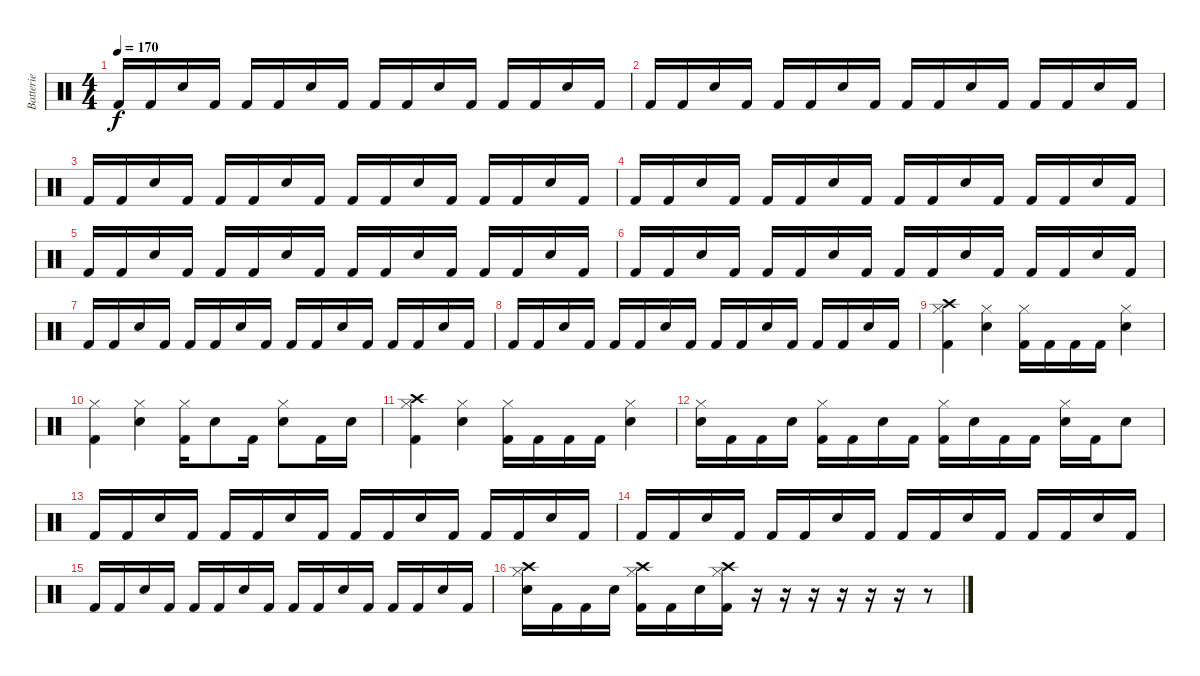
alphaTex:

\track ("Batterie" "Batterie") {instrument percussion}
\staff {score}
\articulation defaults
\ts (4 4)
\tempo 170
\clef neutral
\ks c "Kick (hit) 2".16{dy f} "Kick (hit) 2".16 "Snare (hit) 2".16 "Kick (hit) 2".16 "Kick (hit) 2".16 "Kick (hit) 2".16 "Snare (hit) 2".16 "Kick (hit) 2".16 "Kick (hit) 2".16 "Kick (hit) 2".16 "Snare (hit) 2".16 "Kick (hit) 2".16 "Kick (hit) 2".16 "Kick (hit) 2".16 "Snare (hit) 2".16 "Kick (hit) 2".16
|
"Kick (hit) 2".16 "Kick (hit) 2".16 "Snare (hit) 2".16 "Kick (hit) 2".16 "Kick (hit) 2".16 "Kick (hit) 2".16 "Snare (hit) 2".16 "Kick (hit) 2".16 "Kick (hit) 2".16 "Kick (hit) 2".16 "Snare (hit) 2".16 "Kick (hit) 2".16 "Kick (hit) 2".16 "Kick (hit) 2".16 "Snare (hit) 2".16 "Kick (hit) 2".16 |
"Kick (hit) 2".16 "Kick (hit) 2".16 "Snare (hit) 2".16 "Kick (hit) 2".16 "Kick (hit) 2".16 "Kick (hit) 2".16 "Snare (hit) 2".16 "Kick (hit) 2".16 "Kick (hit) 2".16 "Kick (hit) 2".16 "Snare (hit) 2".16 "Kick (hit) 2".16 "Kick (hit) 2".16 "Kick (hit) 2".16 "Snare (hit) 2".16 "Kick (hit) 2".16 |
"Kick (hit) 2".16 "Kick (hit) 2".16 "Snare (hit) 2".16 "Kick (hit) 2".16 "Kick (hit) 2".16 "Kick (hit) 2".16 "Snare (hit) 2".16 "Kick (hit) 2".16 "Kick (hit) 2".16 "Kick (hit) 2".16 "Snare (hit) 2".16 "Kick (hit) 2".16 "Kick (hit) 2".16 "Kick (hit) 2".16 "Snare (hit) 2".16 "Kick (hit) 2".16 |
"Kick (hit) 2".16 "Kick (hit) 2".16 "Snare (hit) 2".16 "Kick (hit) 2".16 "Kick (hit) 2".16 "Kick (hit) 2".16 "Snare (hit) 2".16 "Kick (hit) 2".16 "Kick (hit) 2".16 "Kick (hit) 2".16 "Snare (hit) 2".16 "Kick (hit) 2".16 "Kick (hit) 2".16 "Kick (hit) 2".16 "Snare (hit) 2".16 "Kick (hit) 2".16 |
"Kick (hit) 2".16 "Kick (hit) 2".16 "Snare (hit) 2".16 "Kick (hit) 2".16 "Kick (hit) 2".16 "Kick (hit) 2".16 "Snare (hit) 2".16 "Kick (hit) 2".16 "Kick (hit) 2".16 "Kick (hit) 2".16 "Snare (hit) 2".16 "Kick (hit) 2".16 "Kick (hit) 2".16 "Kick (hit) 2".16 "Snare (hit) 2".16 "Kick (hit) 2".16 |
"Kick (hit) 2".16 "Kick (hit) 2".16 "Snare (hit) 2".16 "Kick (hit) 2".16 "Kick (hit) 2".16 "Kick (hit) 2".16 "Snare (hit) 2".16 "Kick (hit) 2".16 "Kick (hit) 2".16 "Kick (hit) 2".16 "Snare (hit) 2".16 "Kick (hit) 2".16 "Kick (hit) 2".16 "Kick (hit) 2".16 "Snare (hit) 2".16 "Kick (hit) 2".16 |
"Kick (hit) 2".16 "Kick (hit) 2".16 "Snare (hit) 2".16 "Kick (hit) 2".16 "Kick (hit) 2".16 "Kick (hit) 2".16 "Snare (hit) 2".16 "Kick (hit) 2".16 "Kick (hit) 2".16 "Kick (hit) 2".16 "Snare (hit) 2".16 "Kick (hit) 2".16 "Kick (hit) 2".16 "Kick (hit) 2".16 "Snare (hit) 2".16 "Kick (hit) 2".16 |
("Crash high (hit)" "Hi-Hat (closed)" "Kick (hit) 2").4 ("Hi-Hat (closed)" "Snare (hit) 2").4 ("Hi-Hat (closed)" "Kick (hit) 2").16 "Kick (hit) 2".16 "Kick (hit) 2".16 "Kick (hit) 2".16 ("Hi-Hat (closed)" "Snare (hit) 2").4 |
("Hi-Hat (closed)" "Kick (hit) 2").4 ("Hi-Hat (closed)" "Snare (hit) 2").4 ("Hi-Hat (closed)" "Kick (hit) 2").16 "Snare (hit) 2".8 "Kick (hit) 2".16 ("Hi-Hat (closed)" "Snare (hit) 2").8 "Kick (hit) 2".16 "Snare (hit) 2".16 |
("Crash high (hit)" "Hi-Hat (closed)" "Kick (hit) 2").4 ("Hi-Hat (closed)" "Snare (hit) 2").4 ("Hi-Hat (closed)" "Kick (hit) 2").16 "Kick (hit) 2".16 "Kick (hit) 2".16 "Kick (hit) 2".16 ("Hi-Hat (closed)" "Snare (hit) 2").4 |
("Hi-Hat (closed)" "Snare (hit) 2").16 "Kick (hit) 2".16 "Kick (hit) 2".16 "Snare (hit) 2".16 ("Hi-Hat (closed)" "Kick (hit) 2").16 "Kick (hit) 2".16 "Snare (hit) 2".16 "Kick (hit) 2".16 ("Hi-Hat (closed)" "Kick (hit) 2").16 "Snare (hit) 2".16 "Kick (hit) 2".16 "Kick (hit) 2".16 ("Hi-Hat (closed)" "Snare (hit) 2").16 "Kick (hit) 2".16 "Snare (hit) 2".8 |
"Kick (hit) 2".16 "Kick (hit) 2".16 "Snare (hit) 2".16 "Kick (hit) 2".16 "Kick (hit) 2".16 "Kick (hit) 2".16 "Snare (hit) 2".16 "Kick (hit) 2".16 "Kick (hit) 2".16 "Kick (hit) 2".16 "Snare (hit) 2".16 "Kick (hit) 2".16 "Kick (hit) 2".16 "Kick (hit) 2".16 "Snare (hit) 2".16 "Kick (hit) 2".16 |
"Kick (hit) 2".16 "Kick (hit) 2".16 "Snare (hit) 2".16 "Kick (hit) 2".16 "Kick (hit) 2".16 "Kick (hit) 2".16 "Snare (hit) 2".16 "Kick (hit) 2".16 "Kick (hit) 2".16 "Kick (hit) 2".16 "Snare (hit) 2".16 "Kick (hit) 2".16 "Kick (hit) 2".16 "Kick (hit) 2".16 "Snare (hit) 2".16 "Kick (hit) 2".16 |
"Kick (hit) 2".16 "Kick (hit) 2".16 "Snare (hit) 2".16 "Kick (hit) 2".16 "Kick (hit) 2".16 "Kick (hit) 2".16 "Snare (hit) 2".16 "Kick (hit) 2".16 "Kick (hit) 2".16 "Kick (hit) 2".16 "Snare (hit) 2".16 "Kick (hit) 2".16 "Kick (hit) 2".16 "Kick (hit) 2".16 "Snare (hit) 2".16 "Kick (hit) 2".16 |
("Crash high (hit)" "Hi-Hat (closed)" "Snare (hit) 2").16 "Kick (hit) 2".16 "Kick (hit) 2".16 "Snare (hit) 2".16 ("Crash high (hit)" "Hi-Hat (closed)" "Kick (hit) 2").16 "Kick (hit) 2".16 "Snare (hit) 2".16 ("Crash high (hit)" "Hi-Hat (closed)" "Kick (hit) 2").16 r.16 r.16 r.16 r.16 r.16 r.16 r.8
